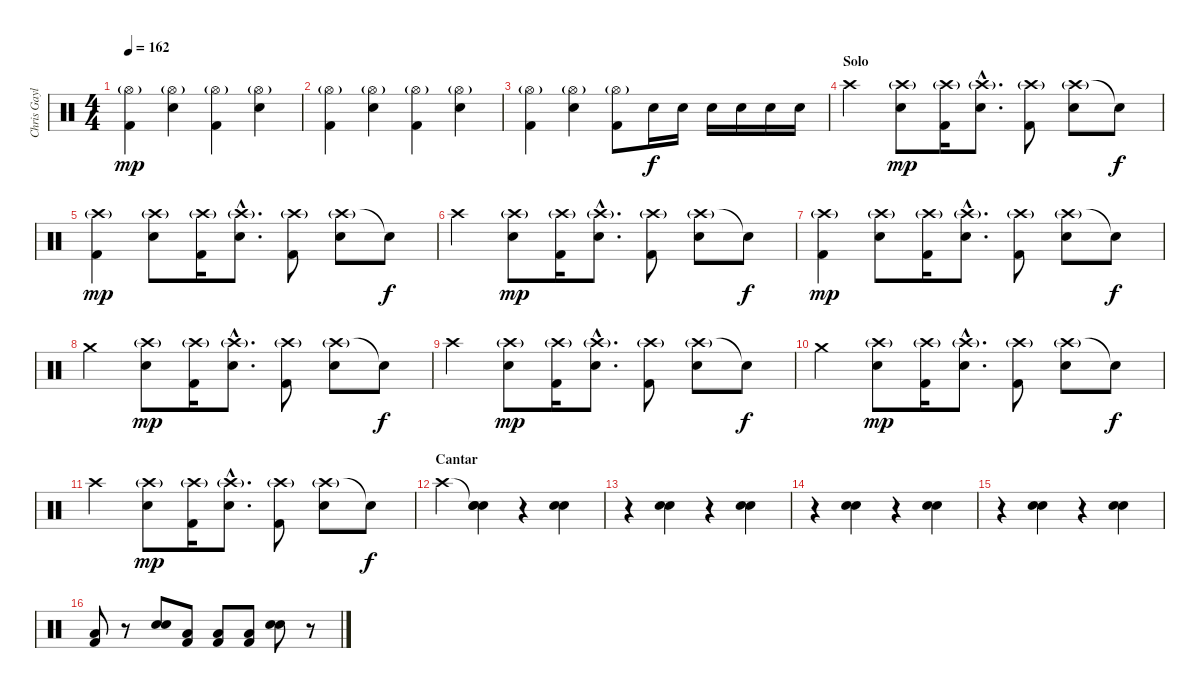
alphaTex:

\track ("Chris Gaylor" "Chris Gayl") {instrument percussion}
\staff {score}
\articulation defaults
\ts (4 4)
\tempo 162
\clef neutral
\ks c
("Hi-Hat (open)"{g} "Kick (hit) 2").4{dy mp} ("Hi-Hat (open)"{g} "Snare (hit) 2").4 ("Hi-Hat (open)"{g} "Kick (hit) 2").4 ("Hi-Hat (open)"{g} "Snare (hit) 2").4 |
("Hi-Hat (open)"{g} "Kick (hit) 2").4 ("Hi-Hat (open)"{g} "Snare (hit) 2").4 ("Hi-Hat (open)"{g} "Kick (hit) 2").4 ("Hi-Hat (open)"{g} "Snare (hit) 2").4 |
("Hi-Hat (open)"{g} "Kick (hit) 2").4 ("Hi-Hat (open)"{g} "Snare (hit) 2").4 ("Hi-Hat (open)"{g} "Kick (hit) 2").8 "Snare (hit) 2".16{dy f} "Snare (hit) 2".16 "Snare (hit) 2".16 "Snare (hit) 2".16 "Snare (hit) 2".16 "Snare (hit) 2".16 |
\section ("" "Solo")
"Crash high (hit)".4 ("Crash high (hit)"{g} "Snare (hit) 2").8{dy mp} ("Crash high (hit)"{g} "Kick (hit) 2").16 ("Crash high (hit)"{g hac} "Snare (hit) 2"{hac}).8{d} ("Crash high (hit)"{g} "Kick (hit) 2").8 ("Crash high (hit)"{g} "Snare (hit) 2").8 "Snare (hit)"{t}.8{dy f} |
("Crash high (hit)"{g} "Kick (hit) 2").4{dy mp} ("Crash high (hit)"{g} "Snare (hit) 2").8 ("Crash high (hit)"{g} "Kick (hit) 2").16 ("Crash high (hit)"{g hac} "Snare (hit) 2"{hac}).8{d} ("Crash high (hit)"{g} "Kick (hit) 2").8 ("Crash high (hit)"{g} "Snare (hit) 2").8 "Snare (hit)"{t}.8{dy f} |
"Crash high (hit)".4 ("Crash high (hit)"{g} "Snare (hit) 2").8{dy mp} ("Crash high (hit)"{g} "Kick (hit) 2").16 ("Crash high (hit)"{g hac} "Snare (hit) 2"{hac}).8{d} ("Crash high (hit)"{g} "Kick (hit) 2").8 ("Crash high (hit)"{g} "Snare (hit) 2").8 "Snare (hit)"{t}.8{dy f} |
("Crash high (hit)"{g} "Kick (hit) 2").4{dy mp} ("Crash high (hit)"{g} "Snare (hit) 2").8 ("Crash high (hit)"{g} "Kick (hit) 2").16 ("Crash high (hit)"{g hac} "Snare (hit) 2"{hac}).8{d} ("Crash high (hit)"{g} "Kick (hit) 2").8 ("Crash high (hit)"{g} "Snare (hit) 2").8 "Snare (hit)"{t}.8{dy f} |
"Crash medium (hit)".4 ("Crash high (hit)"{g} "Snare (hit) 2").8{dy mp} ("Crash high (hit)"{g} "Kick (hit) 2").16 ("Crash high (hit)"{g hac} "Snare (hit) 2"{hac}).8{d} ("Crash high (hit)"{g} "Kick (hit) 2").8 ("Crash high (hit)"{g} "Snare (hit) 2").8 "Snare (hit)"{t}.8{dy f} |
"Crash high (hit)".4 ("Crash high (hit)"{g} "Snare (hit) 2").8{dy mp} ("Crash high (hit)"{g} "Kick (hit) 2").16 ("Crash high (hit)"{g hac} "Snare (hit) 2"{hac}).8{d} ("Crash high (hit)"{g} "Kick (hit) 2").8 ("Crash high (hit)"{g} "Snare (hit) 2").8 "Snare (hit)"{t}.8{dy f} |
"Crash medium (hit)".4 ("Crash high (hit)"{g} "Snare (hit) 2").8{dy mp} ("Crash high (hit)"{g} "Kick (hit) 2").16 ("Crash high (hit)"{g hac} "Snare (hit) 2"{hac}).8{d} ("Crash high (hit)"{g} "Kick (hit) 2").8 ("Crash high (hit)"{g} "Snare (hit) 2").8 "Snare (hit)"{t}.8{dy f} |
"Crash high (hit)".4 ("Crash high (hit)"{g} "Snare (hit) 2").8{dy mp} ("Crash high (hit)"{g} "Kick (hit) 2").16 ("Crash high (hit)"{g hac} "Snare (hit) 2"{hac}).8{d} ("Crash high (hit)"{g} "Kick (hit) 2").8 ("Crash high (hit)"{g} "Snare (hit) 2").8 "Snare (hit)"{t}.8{dy f} |
\section ("" "Cantar")
"Crash high (hit)".4 ("Snare (hit)"{t} "Snare (hit) 2" "Snare (hit) 2").4 r.4 ("Snare (hit) 2" "Snare (hit) 2").4 |
r.4 ("Snare (hit) 2" "Snare (hit) 2").4 r.4 ("Snare (hit) 2" "Snare (hit) 2").4 |
r.4 ("Snare (hit) 2" "Snare (hit) 2").4 r.4 ("Snare (hit) 2" "Snare (hit) 2").4 |
r.4 ("Snare (hit) 2" "Snare (hit) 2").4 r.4 ("Snare (hit) 2" "Snare (hit) 2").4 |
("Low Floor Tom (hit)" "Kick (hit) 2").8 r.8 ("Snare (hit) 2" "Snare (hit) 2").8 ("Low Floor Tom (hit)" "Kick (hit) 2").8 ("Low Floor Tom (hit)" "Kick (hit) 2").8 ("Low Tom (hit)" "Kick (hit) 2").8 ("Snare (hit) 2" "Snare (hit) 2").8 r.8
